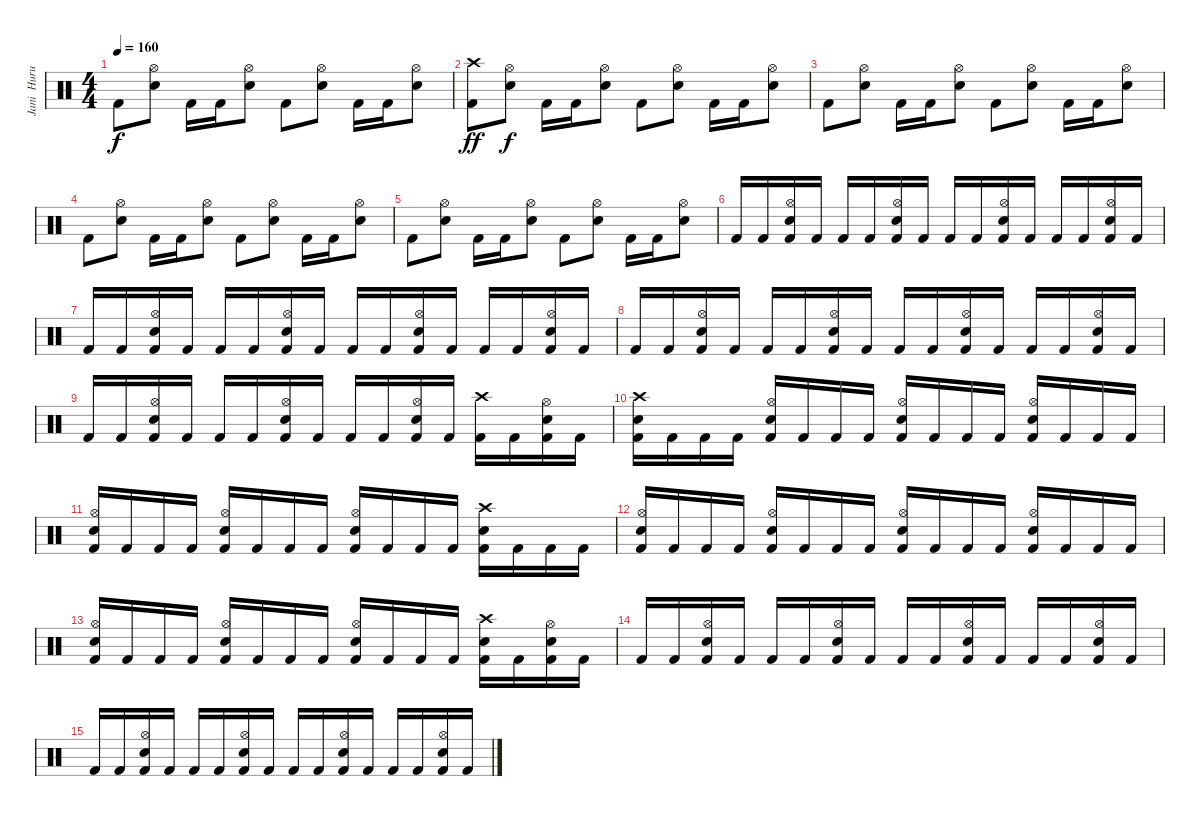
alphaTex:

\track ("Jani  Hurula" "Jani  Huru") {instrument percussion}
\staff {score}
\articulation defaults
\ts (4 4)
\tempo 160
\clef neutral
\ks c "Kick (hit) 2".8{dy f}
("Hi-Hat (open)" "Snare (hit) 2").8 "Kick (hit) 2".16 "Kick (hit) 2".16 ("Hi-Hat (open)" "Snare (hit) 2").8 "Kick (hit) 2".8 ("Hi-Hat (open)" "Snare (hit) 2").8 "Kick (hit) 2".16 "Kick (hit) 2".16 ("Hi-Hat (open)" "Snare (hit) 2").8 |
("Crash high (hit)" "Kick (hit) 2").8{dy ff} ("Hi-Hat (open)" "Snare (hit) 2").8{dy f} "Kick (hit) 2".16 "Kick (hit) 2".16 ("Hi-Hat (open)" "Snare (hit) 2").8 "Kick (hit) 2".8 ("Hi-Hat (open)" "Snare (hit) 2").8 "Kick (hit) 2".16 "Kick (hit) 2".16 ("Hi-Hat (open)" "Snare (hit) 2").8 |
"Kick (hit) 2".8 ("Hi-Hat (open)" "Snare (hit) 2").8 "Kick (hit) 2".16 "Kick (hit) 2".16 ("Hi-Hat (open)" "Snare (hit) 2").8 "Kick (hit) 2".8 ("Hi-Hat (open)" "Snare (hit) 2").8 "Kick (hit) 2".16 "Kick (hit) 2".16 ("Hi-Hat (open)" "Snare (hit) 2").8 |
"Kick (hit) 2".8 ("Hi-Hat (open)" "Snare (hit) 2").8 "Kick (hit) 2".16 "Kick (hit) 2".16 ("Hi-Hat (open)" "Snare (hit) 2").8 "Kick (hit) 2".8 ("Hi-Hat (open)" "Snare (hit) 2").8 "Kick (hit) 2".16 "Kick (hit) 2".16 ("Hi-Hat (open)" "Snare (hit) 2").8 |
"Kick (hit) 2".8 ("Hi-Hat (open)" "Snare (hit) 2").8 "Kick (hit) 2".16 "Kick (hit) 2".16 ("Hi-Hat (open)" "Snare (hit) 2").8 "Kick (hit) 2".8 ("Hi-Hat (open)" "Snare (hit) 2").8 "Kick (hit) 2".16 "Kick (hit) 2".16 ("Hi-Hat (open)" "Snare (hit) 2").8 |
"Kick (hit) 2".16 "Kick (hit) 2".16 ("Hi-Hat (open)" "Snare (hit) 2" "Kick (hit) 2").16 "Kick (hit) 2".16 "Kick (hit) 2".16 "Kick (hit) 2".16 ("Hi-Hat (open)" "Snare (hit) 2" "Kick (hit) 2").16 "Kick (hit) 2".16 "Kick (hit) 2".16 "Kick (hit) 2".16 ("Hi-Hat (open)" "Snare (hit) 2" "Kick (hit) 2").16 "Kick (hit) 2".16 "Kick (hit) 2".16 "Kick (hit) 2".16 ("Hi-Hat (open)" "Snare (hit) 2" "Kick (hit) 2").16 "Kick (hit) 2".16 |
"Kick (hit) 2".16 "Kick (hit) 2".16 ("Hi-Hat (open)" "Snare (hit) 2" "Kick (hit) 2").16 "Kick (hit) 2".16 "Kick (hit) 2".16 "Kick (hit) 2".16 ("Hi-Hat (open)" "Snare (hit) 2" "Kick (hit) 2").16 "Kick (hit) 2".16 "Kick (hit) 2".16 "Kick (hit) 2".16 ("Hi-Hat (open)" "Snare (hit) 2" "Kick (hit) 2").16 "Kick (hit) 2".16 "Kick (hit) 2".16 "Kick (hit) 2".16 ("Hi-Hat (open)" "Snare (hit) 2" "Kick (hit) 2").16 "Kick (hit) 2".16 |
"Kick (hit) 2".16 "Kick (hit) 2".16 ("Hi-Hat (open)" "Snare (hit) 2" "Kick (hit) 2").16 "Kick (hit) 2".16 "Kick (hit) 2".16 "Kick (hit) 2".16 ("Hi-Hat (open)" "Snare (hit) 2" "Kick (hit) 2").16 "Kick (hit) 2".16 "Kick (hit) 2".16 "Kick (hit) 2".16 ("Hi-Hat (open)" "Snare (hit) 2" "Kick (hit) 2").16 "Kick (hit) 2".16 "Kick (hit) 2".16 "Kick (hit) 2".16 ("Hi-Hat (open)" "Snare (hit) 2" "Kick (hit) 2").16 "Kick (hit) 2".16 |
"Kick (hit) 2".16 "Kick (hit) 2".16 ("Hi-Hat (open)" "Snare (hit) 2" "Kick (hit) 2").16 "Kick (hit) 2".16 "Kick (hit) 2".16 "Kick (hit) 2".16 ("Hi-Hat (open)" "Snare (hit) 2" "Kick (hit) 2").16 "Kick (hit) 2".16 "Kick (hit) 2".16 "Kick (hit) 2".16 ("Hi-Hat (open)" "Snare (hit) 2" "Kick (hit) 2").16 "Kick (hit) 2".16 ("Crash high (hit)" "Kick (hit) 2").16 "Kick (hit) 2".16 ("Hi-Hat (open)" "Snare (hit) 2" "Kick (hit) 2").16 "Kick (hit) 2".16 |
("Crash high (hit)" "Snare (hit) 2" "Kick (hit) 2").16 "Kick (hit) 2".16 "Kick (hit) 2".16 "Kick (hit) 2".16 ("Hi-Hat (open)" "Snare (hit) 2" "Kick (hit) 2").16 "Kick (hit) 2".16 "Kick (hit) 2".16 "Kick (hit) 2".16 ("Hi-Hat (open)" "Snare (hit) 2" "Kick (hit) 2").16 "Kick (hit) 2".16 "Kick (hit) 2".16 "Kick (hit) 2".16 ("Hi-Hat (open)" "Snare (hit) 2" "Kick (hit) 2").16 "Kick (hit) 2".16 "Kick (hit) 2".16 "Kick (hit) 2".16 |
("Hi-Hat (open)" "Snare (hit) 2" "Kick (hit) 2").16 "Kick (hit) 2".16 "Kick (hit) 2".16 "Kick (hit) 2".16 ("Hi-Hat (open)" "Snare (hit) 2" "Kick (hit) 2").16 "Kick (hit) 2".16 "Kick (hit) 2".16 "Kick (hit) 2".16 ("Hi-Hat (open)" "Snare (hit) 2" "Kick (hit) 2").16 "Kick (hit) 2".16 "Kick (hit) 2".16 "Kick (hit) 2".16 ("Crash high (hit)" "Snare (hit) 2" "Kick (hit) 2").16 "Kick (hit) 2".16 "Kick (hit) 2".16 "Kick (hit) 2".16 |
("Hi-Hat (open)" "Snare (hit) 2" "Kick (hit) 2").16 "Kick (hit) 2".16 "Kick (hit) 2".16 "Kick (hit) 2".16 ("Hi-Hat (open)" "Snare (hit) 2" "Kick (hit) 2").16 "Kick (hit) 2".16 "Kick (hit) 2".16 "Kick (hit) 2".16 ("Hi-Hat (open)" "Snare (hit) 2" "Kick (hit) 2").16 "Kick (hit) 2".16 "Kick (hit) 2".16 "Kick (hit) 2".16 ("Hi-Hat (open)" "Snare (hit) 2" "Kick (hit) 2").16 "Kick (hit) 2".16 "Kick (hit) 2".16 "Kick (hit) 2".16 |
("Hi-Hat (open)" "Snare (hit) 2" "Kick (hit) 2").16 "Kick (hit) 2".16 "Kick (hit) 2".16 "Kick (hit) 2".16 ("Hi-Hat (open)" "Snare (hit) 2" "Kick (hit) 2").16 "Kick (hit) 2".16 "Kick (hit) 2".16 "Kick (hit) 2".16 ("Hi-Hat (open)" "Snare (hit) 2" "Kick (hit) 2").16 "Kick (hit) 2".16 "Kick (hit) 2".16 "Kick (hit) 2".16 ("Crash high (hit)" "Snare (hit) 2" "Kick (hit) 2").16 "Kick (hit) 2".16 ("Hi-Hat (open)" "Snare (hit) 2" "Kick (hit) 2").16 "Kick (hit) 2".16 |
"Kick (hit) 2".16 "Kick (hit) 2".16 ("Hi-Hat (open)" "Snare (hit) 2" "Kick (hit) 2").16 "Kick (hit) 2".16 "Kick (hit) 2".16 "Kick (hit) 2".16 ("Hi-Hat (open)" "Snare (hit) 2" "Kick (hit) 2").16 "Kick (hit) 2".16 "Kick (hit) 2".16 "Kick (hit) 2".16 ("Hi-Hat (open)" "Snare (hit) 2" "Kick (hit) 2").16 "Kick (hit) 2".16 "Kick (hit) 2".16 "Kick (hit) 2".16 ("Hi-Hat (open)" "Snare (hit) 2" "Kick (hit) 2").16 "Kick (hit) 2".16 |
"Kick (hit) 2".16 "Kick (hit) 2".16 ("Hi-Hat (open)" "Snare (hit) 2" "Kick (hit) 2").16 "Kick (hit) 2".16 "Kick (hit) 2".16 "Kick (hit) 2".16 ("Hi-Hat (open)" "Snare (hit) 2" "Kick (hit) 2").16 "Kick (hit) 2".16 "Kick (hit) 2".16 "Kick (hit) 2".16 ("Hi-Hat (open)" "Snare (hit) 2" "Kick (hit) 2").16 "Kick (hit) 2".16 "Kick (hit) 2".16 "Kick (hit) 2".16 ("Hi-Hat (open)" "Snare (hit) 2" "Kick (hit) 2").16 "Kick (hit) 2".16
